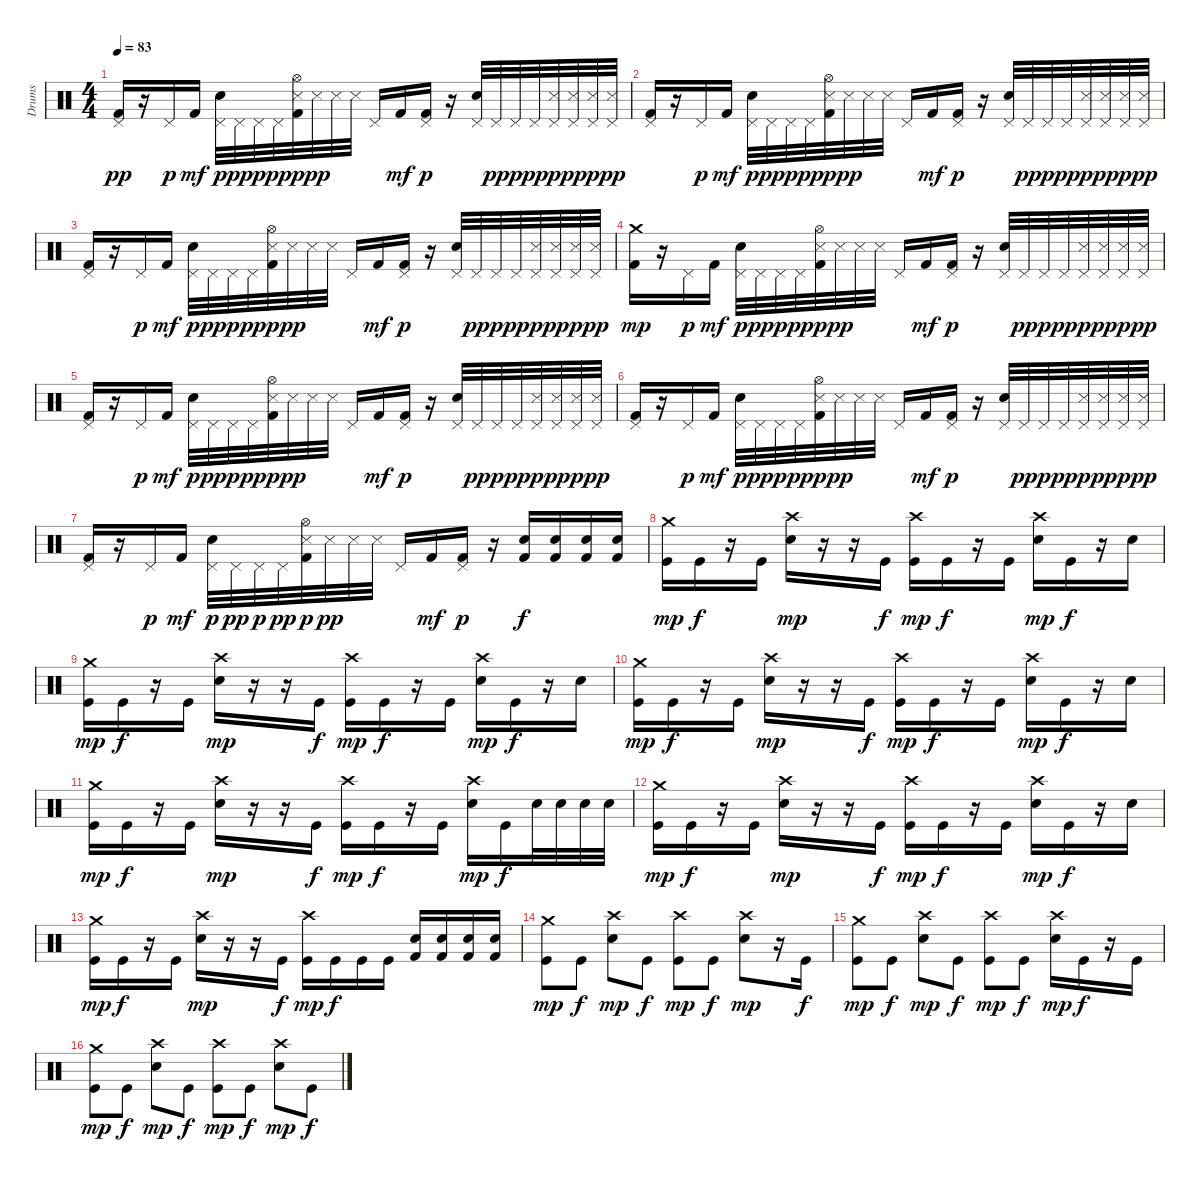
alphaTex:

\track ("Drums" "Drums") {instrument percussion}
\staff {score}
\articulation defaults
\ts (4 4)
\tempo 83
\clef neutral
\ks c
("Kick (hit) 2" "Pedal Hi-Hat (hit)").16{dy pp} r.16 "Pedal Hi-Hat (hit)".16{dy p} "Kick (hit) 2".16{dy mf} ("Snare (hit) 2" "Pedal Hi-Hat (hit)").32{dy p} "Pedal Hi-Hat (hit)".32{dy pp} "Pedal Hi-Hat (hit)".32{dy p} "Pedal Hi-Hat (hit)".32{dy pp} ("Kick (hit) 2" "Snare (side stick) 3" "Hi-Hat (open)").32{dy p} "Snare (side stick) 3".32{dy pp} "Snare (side stick) 3".32 "Snare (side stick) 3".32 "Pedal Hi-Hat (hit)".16 "Kick (hit) 2".16{dy mf} ("Kick (hit) 2" "Pedal Hi-Hat (hit)").16{dy p} r.16 ("Snare (hit) 2" "Pedal Hi-Hat (hit)").32 "Pedal Hi-Hat (hit)".32{dy pp} "Pedal Hi-Hat (hit)".32{dy p} "Pedal Hi-Hat (hit)".32{dy pp} ("Snare (side stick) 3" "Pedal Hi-Hat (hit)").32{dy p} ("Snare (side stick) 3" "Pedal Hi-Hat (hit)").32{dy pp} ("Snare (side stick) 3" "Pedal Hi-Hat (hit)").32{dy p} ("Snare (side stick) 3" "Pedal Hi-Hat (hit)").32{dy pp} |
("Kick (hit) 2" "Pedal Hi-Hat (hit)").16 r.16 "Pedal Hi-Hat (hit)".16{dy p} "Kick (hit) 2".16{dy mf} ("Snare (hit) 2" "Pedal Hi-Hat (hit)").32{dy p} "Pedal Hi-Hat (hit)".32{dy pp} "Pedal Hi-Hat (hit)".32{dy p} "Pedal Hi-Hat (hit)".32{dy pp} ("Kick (hit) 2" "Snare (side stick) 3" "Hi-Hat (open)").32{dy p} "Snare (side stick) 3".32{dy pp} "Snare (side stick) 3".32 "Snare (side stick) 3".32 "Pedal Hi-Hat (hit)".16 "Kick (hit) 2".16{dy mf} ("Kick (hit) 2" "Pedal Hi-Hat (hit)").16{dy p} r.16 ("Snare (hit) 2" "Pedal Hi-Hat (hit)").32 "Pedal Hi-Hat (hit)".32{dy pp} "Pedal Hi-Hat (hit)".32{dy p} "Pedal Hi-Hat (hit)".32{dy pp} ("Snare (side stick) 3" "Pedal Hi-Hat (hit)").32{dy p} ("Snare (side stick) 3" "Pedal Hi-Hat (hit)").32{dy pp} ("Snare (side stick) 3" "Pedal Hi-Hat (hit)").32{dy p} ("Snare (side stick) 3" "Pedal Hi-Hat (hit)").32{dy pp} |
("Kick (hit) 2" "Pedal Hi-Hat (hit)").16 r.16 "Pedal Hi-Hat (hit)".16{dy p} "Kick (hit) 2".16{dy mf} ("Snare (hit) 2" "Pedal Hi-Hat (hit)").32{dy p} "Pedal Hi-Hat (hit)".32{dy pp} "Pedal Hi-Hat (hit)".32{dy p} "Pedal Hi-Hat (hit)".32{dy pp} ("Kick (hit) 2" "Snare (side stick) 3" "Hi-Hat (open)").32{dy p} "Snare (side stick) 3".32{dy pp} "Snare (side stick) 3".32 "Snare (side stick) 3".32 "Pedal Hi-Hat (hit)".16 "Kick (hit) 2".16{dy mf} ("Kick (hit) 2" "Pedal Hi-Hat (hit)").16{dy p} r.16 ("Snare (hit) 2" "Pedal Hi-Hat (hit)").32 "Pedal Hi-Hat (hit)".32{dy pp} "Pedal Hi-Hat (hit)".32{dy p} "Pedal Hi-Hat (hit)".32{dy pp} ("Snare (side stick) 3" "Pedal Hi-Hat (hit)").32{dy p} ("Snare (side stick) 3" "Pedal Hi-Hat (hit)").32{dy pp} ("Snare (side stick) 3" "Pedal Hi-Hat (hit)").32{dy p} ("Snare (side stick) 3" "Pedal Hi-Hat (hit)").32{dy pp} |
("Kick (hit) 2" "Crash medium (hit)").16{dy mp} r.16 "Pedal Hi-Hat (hit)".16{dy p} "Kick (hit) 2".16{dy mf} ("Snare (hit) 2" "Pedal Hi-Hat (hit)").32{dy p} "Pedal Hi-Hat (hit)".32{dy pp} "Pedal Hi-Hat (hit)".32{dy p} "Pedal Hi-Hat (hit)".32{dy pp} ("Kick (hit) 2" "Snare (side stick) 3" "Hi-Hat (open)").32{dy p} "Snare (side stick) 3".32{dy pp} "Snare (side stick) 3".32 "Snare (side stick) 3".32 "Pedal Hi-Hat (hit)".16 "Kick (hit) 2".16{dy mf} ("Kick (hit) 2" "Pedal Hi-Hat (hit)").16{dy p} r.16 ("Snare (hit) 2" "Pedal Hi-Hat (hit)").32 "Pedal Hi-Hat (hit)".32{dy pp} "Pedal Hi-Hat (hit)".32{dy p} "Pedal Hi-Hat (hit)".32{dy pp} ("Snare (side stick) 3" "Pedal Hi-Hat (hit)").32{dy p} ("Snare (side stick) 3" "Pedal Hi-Hat (hit)").32{dy pp} ("Snare (side stick) 3" "Pedal Hi-Hat (hit)").32{dy p} ("Snare (side stick) 3" "Pedal Hi-Hat (hit)").32{dy pp} |
("Kick (hit) 2" "Pedal Hi-Hat (hit)").16 r.16 "Pedal Hi-Hat (hit)".16{dy p} "Kick (hit) 2".16{dy mf} ("Snare (hit) 2" "Pedal Hi-Hat (hit)").32{dy p} "Pedal Hi-Hat (hit)".32{dy pp} "Pedal Hi-Hat (hit)".32{dy p} "Pedal Hi-Hat (hit)".32{dy pp} ("Kick (hit) 2" "Snare (side stick) 3" "Hi-Hat (open)").32{dy p} "Snare (side stick) 3".32{dy pp} "Snare (side stick) 3".32 "Snare (side stick) 3".32 "Pedal Hi-Hat (hit)".16 "Kick (hit) 2".16{dy mf} ("Kick (hit) 2" "Pedal Hi-Hat (hit)").16{dy p} r.16 ("Snare (hit) 2" "Pedal Hi-Hat (hit)").32 "Pedal Hi-Hat (hit)".32{dy pp} "Pedal Hi-Hat (hit)".32{dy p} "Pedal Hi-Hat (hit)".32{dy pp} ("Snare (side stick) 3" "Pedal Hi-Hat (hit)").32{dy p} ("Snare (side stick) 3" "Pedal Hi-Hat (hit)").32{dy pp} ("Snare (side stick) 3" "Pedal Hi-Hat (hit)").32{dy p} ("Snare (side stick) 3" "Pedal Hi-Hat (hit)").32{dy pp} |
("Kick (hit) 2" "Pedal Hi-Hat (hit)").16 r.16 "Pedal Hi-Hat (hit)".16{dy p} "Kick (hit) 2".16{dy mf} ("Snare (hit) 2" "Pedal Hi-Hat (hit)").32{dy p} "Pedal Hi-Hat (hit)".32{dy pp} "Pedal Hi-Hat (hit)".32{dy p} "Pedal Hi-Hat (hit)".32{dy pp} ("Kick (hit) 2" "Snare (side stick) 3" "Hi-Hat (open)").32{dy p} "Snare (side stick) 3".32{dy pp} "Snare (side stick) 3".32 "Snare (side stick) 3".32 "Pedal Hi-Hat (hit)".16 "Kick (hit) 2".16{dy mf} ("Kick (hit) 2" "Pedal Hi-Hat (hit)").16{dy p} r.16 ("Snare (hit) 2" "Pedal Hi-Hat (hit)").32 "Pedal Hi-Hat (hit)".32{dy pp} "Pedal Hi-Hat (hit)".32{dy p} "Pedal Hi-Hat (hit)".32{dy pp} ("Snare (side stick) 3" "Pedal Hi-Hat (hit)").32{dy p} ("Snare (side stick) 3" "Pedal Hi-Hat (hit)").32{dy pp} ("Snare (side stick) 3" "Pedal Hi-Hat (hit)").32{dy p} ("Snare (side stick) 3" "Pedal Hi-Hat (hit)").32{dy pp} |
("Kick (hit) 2" "Pedal Hi-Hat (hit)").16 r.16 "Pedal Hi-Hat (hit)".16{dy p} "Kick (hit) 2".16{dy mf} ("Snare (hit) 2" "Pedal Hi-Hat (hit)").32{dy p} "Pedal Hi-Hat (hit)".32{dy pp} "Pedal Hi-Hat (hit)".32{dy p} "Pedal Hi-Hat (hit)".32{dy pp} ("Kick (hit) 2" "Snare (side stick) 3" "Hi-Hat (open)").32{dy p} "Snare (side stick) 3".32{dy pp} "Snare (side stick) 3".32 "Snare (side stick) 3".32 "Pedal Hi-Hat (hit)".16 "Kick (hit) 2".16{dy mf} ("Kick (hit) 2" "Pedal Hi-Hat (hit)").16{dy p} r.16 ("Snare (hit) 2" "Kick (hit) 2").16{dy f} ("Snare (hit) 2" "Kick (hit) 2").16 ("Snare (hit) 2" "Kick (hit) 2").16 ("Snare (hit) 2" "Kick (hit) 2").16 |
("Kick (hit)" "Crash medium (hit)").16{dy mp} "Kick (hit)".16{dy f} r.16 "Kick (hit)".16 ("Snare (hit) 2" "Crash high (hit)").16{dy mp} r.16 r.16 "Kick (hit)".16{dy f} ("Kick (hit)" "Crash high (hit)").16{dy mp} "Kick (hit)".16{dy f} r.16 "Kick (hit)".16 ("Snare (hit) 2" "Crash high (hit)").16{dy mp} "Kick (hit)".16{dy f} r.16 "Snare (hit) 2".16 |
("Kick (hit)" "Crash medium (hit)").16{dy mp} "Kick (hit)".16{dy f} r.16 "Kick (hit)".16 ("Snare (hit) 2" "Crash high (hit)").16{dy mp} r.16 r.16 "Kick (hit)".16{dy f} ("Kick (hit)" "Crash high (hit)").16{dy mp} "Kick (hit)".16{dy f} r.16 "Kick (hit)".16 ("Snare (hit) 2" "Crash high (hit)").16{dy mp} "Kick (hit)".16{dy f} r.16 "Snare (hit) 2".16 |
("Kick (hit)" "Crash medium (hit)").16{dy mp} "Kick (hit)".16{dy f} r.16 "Kick (hit)".16 ("Snare (hit) 2" "Crash high (hit)").16{dy mp} r.16 r.16 "Kick (hit)".16{dy f} ("Kick (hit)" "Crash high (hit)").16{dy mp} "Kick (hit)".16{dy f} r.16 "Kick (hit)".16 ("Snare (hit) 2" "Crash high (hit)").16{dy mp} "Kick (hit)".16{dy f} r.16 "Snare (hit) 2".16 |
("Kick (hit)" "Crash medium (hit)").16{dy mp} "Kick (hit)".16{dy f} r.16 "Kick (hit)".16 ("Snare (hit) 2" "Crash high (hit)").16{dy mp} r.16 r.16 "Kick (hit)".16{dy f} ("Kick (hit)" "Crash high (hit)").16{dy mp} "Kick (hit)".16{dy f} r.16 "Kick (hit)".16 ("Snare (hit) 2" "Crash high (hit)").16{dy mp} "Kick (hit)".16{dy f} "Snare (hit) 2".32 "Snare (hit) 2".32 "Snare (hit) 2".32 "Snare (hit) 2".32 |
("Kick (hit)" "Crash medium (hit)").16{dy mp} "Kick (hit)".16{dy f} r.16 "Kick (hit)".16 ("Snare (hit) 2" "Crash high (hit)").16{dy mp} r.16 r.16 "Kick (hit)".16{dy f} ("Kick (hit)" "Crash high (hit)").16{dy mp} "Kick (hit)".16{dy f} r.16 "Kick (hit)".16 ("Snare (hit) 2" "Crash high (hit)").16{dy mp} "Kick (hit)".16{dy f} r.16 "Snare (hit) 2".16 |
("Kick (hit)" "Crash medium (hit)").16{dy mp} "Kick (hit)".16{dy f} r.16 "Kick (hit)".16 ("Snare (hit) 2" "Crash high (hit)").16{dy mp} r.16 r.16 "Kick (hit)".16{dy f} ("Kick (hit)" "Crash high (hit)").16{dy mp} "Kick (hit)".16{dy f} "Kick (hit)".16 "Kick (hit)".16 ("Snare (hit) 2" "Kick (hit) 2").16 ("Snare (hit) 2" "Kick (hit) 2").16 ("Snare (hit) 2" "Kick (hit) 2").16 ("Snare (hit) 2" "Kick (hit) 2").16 |
("Kick (hit)" "Crash medium (hit)").8{dy mp} "Kick (hit)".8{dy f} ("Snare (hit) 2" "Crash high (hit)").8{dy mp} "Kick (hit)".8{dy f} ("Kick (hit)" "Crash high (hit)").8{dy mp} "Kick (hit)".8{dy f} ("Snare (hit) 2" "Crash high (hit)").8{dy mp} r.16 "Kick (hit)".16{dy f} |
("Kick (hit)" "Crash medium (hit)").8{dy mp} "Kick (hit)".8{dy f} ("Snare (hit) 2" "Crash high (hit)").8{dy mp} "Kick (hit)".8{dy f} ("Kick (hit)" "Crash high (hit)").8{dy mp} "Kick (hit)".8{dy f} ("Snare (hit) 2" "Crash high (hit)").16{dy mp} "Kick (hit)".16{dy f} r.16 "Kick (hit)".16 |
("Kick (hit)" "Crash medium (hit)").8{dy mp} "Kick (hit)".8{dy f} ("Snare (hit) 2" "Crash high (hit)").8{dy mp} "Kick (hit)".8{dy f} ("Kick (hit)" "Crash high (hit)").8{dy mp} "Kick (hit)".8{dy f} ("Snare (hit) 2" "Crash high (hit)").8{dy mp} "Kick (hit)".8{dy f}
